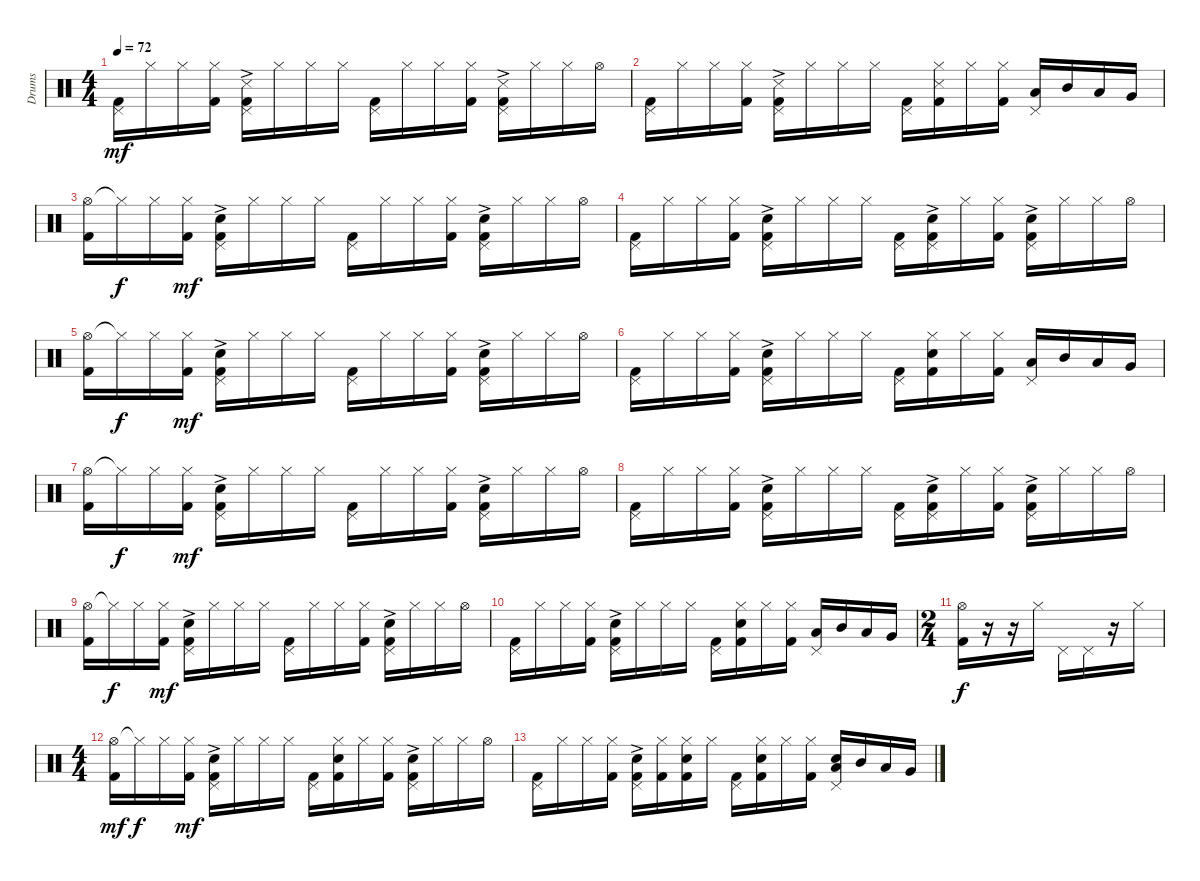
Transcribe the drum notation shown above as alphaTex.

\track ("Drums" "Drums") {instrument percussion}
\staff {score}
\articulation defaults
\ts (4 4)
\tempo 72
\clef neutral
\ks c
("Pedal Hi-Hat (hit)" "Kick (hit) 2").16{dy mf} "Hi-Hat (closed)".16 "Hi-Hat (closed)".16 ("Hi-Hat (closed)" "Kick (hit) 2").16 ("Pedal Hi-Hat (hit)" "Snare (side stick) 3"{ac} "Kick (hit) 2").16 "Hi-Hat (closed)".16 "Hi-Hat (closed)".16 "Hi-Hat (closed)".16 ("Pedal Hi-Hat (hit)" "Kick (hit) 2").16 "Hi-Hat (closed)".16 "Hi-Hat (closed)".16 ("Hi-Hat (closed)" "Kick (hit) 2").16 ("Pedal Hi-Hat (hit)" "Snare (side stick) 3"{ac} "Kick (hit) 2").16 "Hi-Hat (closed)".16 "Hi-Hat (closed)".16 "Hi-Hat (open)".16 |
("Pedal Hi-Hat (hit)" "Kick (hit) 2").16 "Hi-Hat (closed)".16 "Hi-Hat (closed)".16 ("Hi-Hat (closed)" "Kick (hit) 2").16 ("Pedal Hi-Hat (hit)" "Snare (side stick) 3"{ac} "Kick (hit) 2").16 "Hi-Hat (closed)".16 "Hi-Hat (closed)".16 "Hi-Hat (closed)".16 ("Pedal Hi-Hat (hit)" "Kick (hit) 2").16 ("Hi-Hat (closed)" "Snare (side stick) 3" "Kick (hit) 2").16 "Hi-Hat (closed)".16 ("Hi-Hat (closed)" "Kick (hit) 2").16 ("Pedal Hi-Hat (hit)" "Low Tom (hit)").16 "Mid Tom (hit)".16 "Low Tom (hit)".16 "Very Low Tom (hit)".16 |
("Hi-Hat (open)" "Kick (hit) 2").16 "Hi-Hat (closed)"{t}.16{dy f} "Hi-Hat (closed)".16 ("Hi-Hat (closed)" "Kick (hit) 2").16{dy mf} ("Pedal Hi-Hat (hit)" "Electric Snare (hit)"{ac} "Kick (hit) 2").16 "Hi-Hat (closed)".16 "Hi-Hat (closed)".16 "Hi-Hat (closed)".16 ("Pedal Hi-Hat (hit)" "Kick (hit) 2").16 "Hi-Hat (closed)".16 "Hi-Hat (closed)".16 ("Hi-Hat (closed)" "Kick (hit) 2").16 ("Pedal Hi-Hat (hit)" "Electric Snare (hit)"{ac} "Kick (hit) 2").16 "Hi-Hat (closed)".16 "Hi-Hat (closed)".16 "Hi-Hat (open)".16 |
("Pedal Hi-Hat (hit)" "Kick (hit) 2").16 "Hi-Hat (closed)".16 "Hi-Hat (closed)".16 ("Hi-Hat (closed)" "Kick (hit) 2").16 ("Pedal Hi-Hat (hit)" "Electric Snare (hit)"{ac} "Kick (hit) 2").16 "Hi-Hat (closed)".16 "Hi-Hat (closed)".16 "Hi-Hat (closed)".16 ("Pedal Hi-Hat (hit)" "Kick (hit) 2").16 ("Pedal Hi-Hat (hit)" "Electric Snare (hit)"{ac} "Kick (hit) 2").16 "Hi-Hat (closed)".16 ("Hi-Hat (closed)" "Kick (hit) 2").16 ("Pedal Hi-Hat (hit)" "Electric Snare (hit)"{ac} "Kick (hit) 2").16 "Hi-Hat (closed)".16 "Hi-Hat (closed)".16 "Hi-Hat (open)".16 |
("Hi-Hat (open)" "Kick (hit) 2").16 "Hi-Hat (closed)"{t}.16{dy f} "Hi-Hat (closed)".16 ("Hi-Hat (closed)" "Kick (hit) 2").16{dy mf} ("Pedal Hi-Hat (hit)" "Electric Snare (hit)"{ac} "Kick (hit) 2").16 "Hi-Hat (closed)".16 "Hi-Hat (closed)".16 "Hi-Hat (closed)".16 ("Pedal Hi-Hat (hit)" "Kick (hit) 2").16 "Hi-Hat (closed)".16 "Hi-Hat (closed)".16 ("Hi-Hat (closed)" "Kick (hit) 2").16 ("Pedal Hi-Hat (hit)" "Electric Snare (hit)"{ac} "Kick (hit) 2").16 "Hi-Hat (closed)".16 "Hi-Hat (closed)".16 "Hi-Hat (open)".16 |
("Pedal Hi-Hat (hit)" "Kick (hit) 2").16 "Hi-Hat (closed)".16 "Hi-Hat (closed)".16 ("Hi-Hat (closed)" "Kick (hit) 2").16 ("Pedal Hi-Hat (hit)" "Electric Snare (hit)"{ac} "Kick (hit) 2").16 "Hi-Hat (closed)".16 "Hi-Hat (closed)".16 "Hi-Hat (closed)".16 ("Pedal Hi-Hat (hit)" "Kick (hit) 2").16 ("Hi-Hat (closed)" "Electric Snare (hit)" "Kick (hit) 2").16 "Hi-Hat (closed)".16 ("Hi-Hat (closed)" "Kick (hit) 2").16 ("Pedal Hi-Hat (hit)" "Low Tom (hit)").16 "Mid Tom (hit)".16 "Low Tom (hit)".16 "Very Low Tom (hit)".16 |
("Hi-Hat (open)" "Kick (hit) 2").16 "Hi-Hat (closed)"{t}.16{dy f} "Hi-Hat (closed)".16 ("Hi-Hat (closed)" "Kick (hit) 2").16{dy mf} ("Pedal Hi-Hat (hit)" "Electric Snare (hit)"{ac} "Kick (hit) 2").16 "Hi-Hat (closed)".16 "Hi-Hat (closed)".16 "Hi-Hat (closed)".16 ("Pedal Hi-Hat (hit)" "Kick (hit) 2").16 "Hi-Hat (closed)".16 "Hi-Hat (closed)".16 ("Hi-Hat (closed)" "Kick (hit) 2").16 ("Pedal Hi-Hat (hit)" "Electric Snare (hit)"{ac} "Kick (hit) 2").16 "Hi-Hat (closed)".16 "Hi-Hat (closed)".16 "Hi-Hat (open)".16 |
("Pedal Hi-Hat (hit)" "Kick (hit) 2").16 "Hi-Hat (closed)".16 "Hi-Hat (closed)".16 ("Hi-Hat (closed)" "Kick (hit) 2").16 ("Pedal Hi-Hat (hit)" "Electric Snare (hit)"{ac} "Kick (hit) 2").16 "Hi-Hat (closed)".16 "Hi-Hat (closed)".16 "Hi-Hat (closed)".16 ("Pedal Hi-Hat (hit)" "Kick (hit) 2").16 ("Pedal Hi-Hat (hit)" "Electric Snare (hit)"{ac} "Kick (hit) 2").16 "Hi-Hat (closed)".16 ("Hi-Hat (closed)" "Kick (hit) 2").16 ("Pedal Hi-Hat (hit)" "Electric Snare (hit)"{ac} "Kick (hit) 2").16 "Hi-Hat (closed)".16 "Hi-Hat (closed)".16 "Hi-Hat (open)".16 |
("Hi-Hat (open)" "Kick (hit) 2").16 "Hi-Hat (closed)"{t}.16{dy f} "Hi-Hat (closed)".16 ("Hi-Hat (closed)" "Kick (hit) 2").16{dy mf} ("Pedal Hi-Hat (hit)" "Electric Snare (hit)"{ac} "Kick (hit) 2").16 "Hi-Hat (closed)".16 "Hi-Hat (closed)".16 "Hi-Hat (closed)".16 ("Pedal Hi-Hat (hit)" "Kick (hit) 2").16 "Hi-Hat (closed)".16 "Hi-Hat (closed)".16 ("Hi-Hat (closed)" "Kick (hit) 2").16 ("Pedal Hi-Hat (hit)" "Electric Snare (hit)"{ac} "Kick (hit) 2").16 "Hi-Hat (closed)".16 "Hi-Hat (closed)".16 "Hi-Hat (open)".16 |
("Pedal Hi-Hat (hit)" "Kick (hit) 2").16 "Hi-Hat (closed)".16 "Hi-Hat (closed)".16 ("Hi-Hat (closed)" "Kick (hit) 2").16 ("Pedal Hi-Hat (hit)" "Electric Snare (hit)"{ac} "Kick (hit) 2").16 "Hi-Hat (closed)".16 "Hi-Hat (closed)".16 "Hi-Hat (closed)".16 ("Pedal Hi-Hat (hit)" "Kick (hit) 2").16 ("Hi-Hat (closed)" "Electric Snare (hit)" "Kick (hit) 2").16 "Hi-Hat (closed)".16 ("Hi-Hat (closed)" "Kick (hit) 2").16 ("Pedal Hi-Hat (hit)" "Low Tom (hit)").16 "Mid Tom (hit)".16 "Low Tom (hit)".16 "Very Low Tom (hit)".16 |
\ts (2 4)
("Kick (hit) 2" "Hi-Hat (open)").16{dy f} r.16 r.16 "Hi-Hat (closed)".16 "Pedal Hi-Hat (hit)".16 "Pedal Hi-Hat (hit)".16 r.16 "Hi-Hat (closed)".16 |
\ts (4 4)
("Hi-Hat (open)" "Kick (hit) 2").16{dy mf} "Hi-Hat (closed)"{t}.16{dy f} "Hi-Hat (closed)".16 ("Hi-Hat (closed)" "Kick (hit) 2").16{dy mf} ("Pedal Hi-Hat (hit)" "Electric Snare (hit)"{ac} "Kick (hit) 2").16 "Hi-Hat (closed)".16 "Hi-Hat (closed)".16 "Hi-Hat (closed)".16 ("Pedal Hi-Hat (hit)" "Kick (hit) 2").16 ("Hi-Hat (closed)" "Electric Snare (hit)" "Kick (hit) 2").16 "Hi-Hat (closed)".16 ("Hi-Hat (closed)" "Kick (hit) 2").16 ("Pedal Hi-Hat (hit)" "Electric Snare (hit)"{ac} "Kick (hit) 2").16 "Hi-Hat (closed)".16 "Hi-Hat (closed)".16 "Hi-Hat (open)".16 |
("Pedal Hi-Hat (hit)" "Kick (hit) 2").16 "Hi-Hat (closed)".16 "Hi-Hat (closed)".16 ("Hi-Hat (closed)" "Kick (hit) 2").16 ("Pedal Hi-Hat (hit)" "Electric Snare (hit)"{ac} "Kick (hit) 2").16 ("Hi-Hat (closed)" "Kick (hit) 2").16 ("Hi-Hat (closed)" "Electric Snare (hit)" "Kick (hit) 2").16 "Hi-Hat (closed)".16 ("Pedal Hi-Hat (hit)" "Kick (hit) 2").16 ("Hi-Hat (closed)" "Electric Snare (hit)" "Kick (hit) 2").16 "Hi-Hat (closed)".16 ("Hi-Hat (closed)" "Kick (hit) 2").16 ("Pedal Hi-Hat (hit)" "Electric Snare (hit)" "Low Tom (hit)").16 "Mid Tom (hit)".16 "Low Tom (hit)".16 "Very Low Tom (hit)".16
